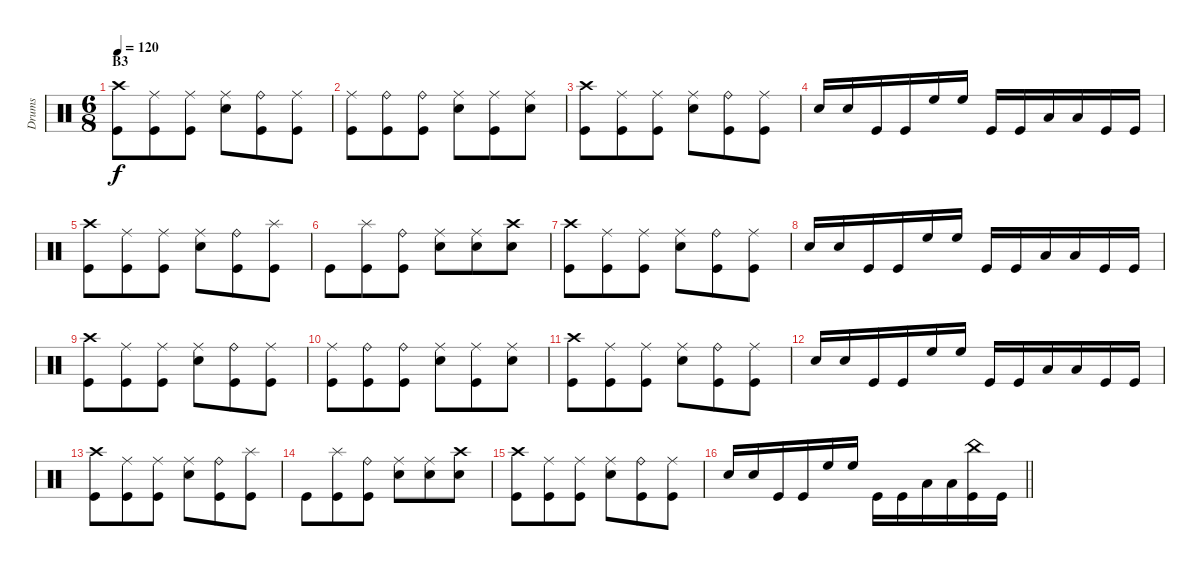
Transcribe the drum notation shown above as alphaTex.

\track ("Drums" "Drums") {instrument percussion}
\staff {score}
\articulation defaults
\ts (6 8)
\section ("" "B3")
\tempo 120
\clef neutral
\ks c
("Kick (hit)" "Crash high (hit)").8{dy f} ("Kick (hit)" "Ride (middle)").8 ("Kick (hit)" "Ride (middle)").8 ("Ride (middle)" "Electric Snare (hit)").8 ("Kick (hit)" "Ride (bell)").8 ("Kick (hit)" "Ride (middle)").8 |
("Kick (hit)" "Ride (middle)").8 ("Kick (hit)" "Ride (bell)").8 ("Kick (hit)" "Ride (bell)").8 ("Ride (middle)" "Electric Snare (hit)").8 ("Kick (hit)" "Ride (middle)").8 ("Ride (middle)" "Electric Snare (hit)").8 |
("Kick (hit)" "Crash high (hit)").8 ("Kick (hit)" "Ride (middle)").8 ("Kick (hit)" "Ride (middle)").8 ("Ride (middle)" "Electric Snare (hit)").8 ("Kick (hit)" "Ride (bell)").8 ("Kick (hit)" "Ride (middle)").8 |
"Electric Snare (hit)".16 "Electric Snare (hit)".16 "Kick (hit)".16 "Kick (hit)".16 "High Floor Tom (hit)".16 "High Floor Tom (hit)".16 "Kick (hit)".16 "Kick (hit)".16 "Low Tom (hit)".16 "Low Tom (hit)".16 "Kick (hit)".16 "Kick (hit)".16 |
("Kick (hit)" "Crash high (hit)").8 ("Kick (hit)" "Ride (middle)").8 ("Kick (hit)" "Ride (middle)").8 ("Ride (middle)" "Electric Snare (hit)").8 ("Kick (hit)" "Ride (bell)").8 ("Kick (hit)" "Splash (hit)").8 |
"Kick (hit)".8 ("Kick (hit)" "Splash (hit)").8 ("Kick (hit)" "Ride (bell)").8 ("Ride (middle)" "Electric Snare (hit)").8 ("Ride (middle)" "Electric Snare (hit)").8 ("Crash high (hit)" "Electric Snare (hit)").8 |
("Kick (hit)" "Crash high (hit)").8 ("Kick (hit)" "Ride (middle)").8 ("Kick (hit)" "Ride (middle)").8 ("Ride (middle)" "Electric Snare (hit)").8 ("Kick (hit)" "Ride (bell)").8 ("Kick (hit)" "Ride (middle)").8 |
"Electric Snare (hit)".16 "Electric Snare (hit)".16 "Kick (hit)".16 "Kick (hit)".16 "High Floor Tom (hit)".16 "High Floor Tom (hit)".16 "Kick (hit)".16 "Kick (hit)".16 "Low Tom (hit)".16 "Low Tom (hit)".16 "Kick (hit)".16 "Kick (hit)".16 |
("Kick (hit)" "Crash high (hit)").8 ("Kick (hit)" "Ride (middle)").8 ("Kick (hit)" "Ride (middle)").8 ("Ride (middle)" "Electric Snare (hit)").8 ("Kick (hit)" "Ride (bell)").8 ("Kick (hit)" "Ride (middle)").8 |
("Kick (hit)" "Ride (middle)").8 ("Kick (hit)" "Ride (bell)").8 ("Kick (hit)" "Ride (bell)").8 ("Ride (middle)" "Electric Snare (hit)").8 ("Kick (hit)" "Ride (middle)").8 ("Ride (middle)" "Electric Snare (hit)").8 |
("Kick (hit)" "Crash high (hit)").8 ("Kick (hit)" "Ride (middle)").8 ("Kick (hit)" "Ride (middle)").8 ("Ride (middle)" "Electric Snare (hit)").8 ("Kick (hit)" "Ride (bell)").8 ("Kick (hit)" "Ride (middle)").8 |
"Electric Snare (hit)".16 "Electric Snare (hit)".16 "Kick (hit)".16 "Kick (hit)".16 "High Floor Tom (hit)".16 "High Floor Tom (hit)".16 "Kick (hit)".16 "Kick (hit)".16 "Low Tom (hit)".16 "Low Tom (hit)".16 "Kick (hit)".16 "Kick (hit)".16 |
("Kick (hit)" "Crash high (hit)").8 ("Kick (hit)" "Ride (middle)").8 ("Kick (hit)" "Ride (middle)").8 ("Ride (middle)" "Electric Snare (hit)").8 ("Kick (hit)" "Ride (bell)").8 ("Kick (hit)" "Splash (hit)").8 |
"Kick (hit)".8 ("Kick (hit)" "Splash (hit)").8 ("Kick (hit)" "Ride (bell)").8 ("Ride (middle)" "Electric Snare (hit)").8 ("Ride (middle)" "Electric Snare (hit)").8 ("Crash high (hit)" "Electric Snare (hit)").8 |
("Kick (hit)" "Crash high (hit)").8 ("Kick (hit)" "Ride (middle)").8 ("Kick (hit)" "Ride (middle)").8 ("Ride (middle)" "Electric Snare (hit)").8 ("Kick (hit)" "Ride (bell)").8 ("Kick (hit)" "Ride (middle)").8 |
\barLineRight lightlight "Electric Snare (hit)".16 "Electric Snare (hit)".16 "Kick (hit)".16 "Kick (hit)".16 "High Floor Tom (hit)".16 "High Floor Tom (hit)".16 "Kick (hit)".16 "Kick (hit)".16 "Low Tom (hit)".16 "Low Tom (hit)".16
("China (hit)" "Kick (hit)").16 "Kick (hit)".16
